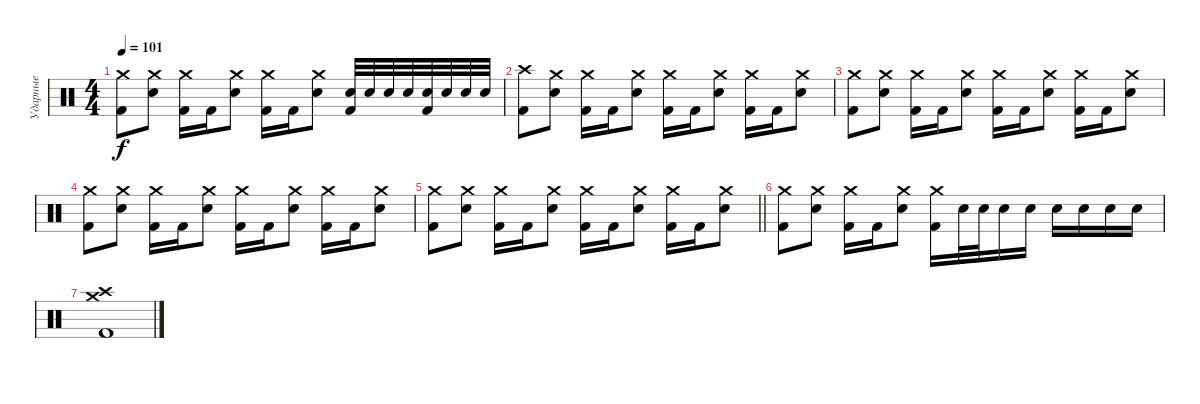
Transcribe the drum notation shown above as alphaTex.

\track ("Ударные" "Ударные") {instrument percussion}
\staff {score}
\articulation defaults
\ts (4 4)
\tempo 101
\clef neutral
\ks c
("Crash medium (hit)" "Kick (hit) 2").8{dy f} ("Crash medium (hit)" "Electric Snare (hit)").8 ("Crash medium (hit)" "Kick (hit) 2").16 "Kick (hit) 2".16 ("Crash medium (hit)" "Electric Snare (hit)").8 ("Crash medium (hit)" "Kick (hit) 2").16 "Kick (hit) 2".16 ("Crash medium (hit)" "Electric Snare (hit)").8 ("Electric Snare (hit)" "Kick (hit) 2").32 "Electric Snare (hit)".32 "Electric Snare (hit)".32 "Electric Snare (hit)".32 ("Electric Snare (hit)" "Kick (hit) 2").32 "Electric Snare (hit)".32 "Electric Snare (hit)".32 "Electric Snare (hit)".32 |
("Crash high (hit)" "Kick (hit) 2").8 ("Crash medium (hit)" "Electric Snare (hit)").8 ("Crash medium (hit)" "Kick (hit) 2").16 "Kick (hit) 2".16 ("Crash medium (hit)" "Electric Snare (hit)").8 ("Crash medium (hit)" "Kick (hit) 2").16 "Kick (hit) 2".16 ("Crash medium (hit)" "Electric Snare (hit)").8 ("Crash medium (hit)" "Kick (hit) 2").16 "Kick (hit) 2".16 ("Crash medium (hit)" "Electric Snare (hit)").8 |
("Crash medium (hit)" "Kick (hit) 2").8 ("Crash medium (hit)" "Electric Snare (hit)").8 ("Crash medium (hit)" "Kick (hit) 2").16 "Kick (hit) 2".16 ("Crash medium (hit)" "Electric Snare (hit)").8 ("Crash medium (hit)" "Kick (hit) 2").16 "Kick (hit) 2".16 ("Crash medium (hit)" "Electric Snare (hit)").8 ("Crash medium (hit)" "Kick (hit) 2").16 "Kick (hit) 2".16 ("Crash medium (hit)" "Electric Snare (hit)").8 |
("Crash medium (hit)" "Kick (hit) 2").8 ("Crash medium (hit)" "Electric Snare (hit)").8 ("Crash medium (hit)" "Kick (hit) 2").16 "Kick (hit) 2".16 ("Crash medium (hit)" "Electric Snare (hit)").8 ("Crash medium (hit)" "Kick (hit) 2").16 "Kick (hit) 2".16 ("Crash medium (hit)" "Electric Snare (hit)").8 ("Crash medium (hit)" "Kick (hit) 2").16 "Kick (hit) 2".16 ("Crash medium (hit)" "Electric Snare (hit)").8 |
\barLineRight lightlight
("Crash medium (hit)" "Kick (hit) 2").8 ("Crash medium (hit)" "Electric Snare (hit)").8 ("Crash medium (hit)" "Kick (hit) 2").16 "Kick (hit) 2".16 ("Crash medium (hit)" "Electric Snare (hit)").8 ("Crash medium (hit)" "Kick (hit) 2").16 "Kick (hit) 2".16 ("Crash medium (hit)" "Electric Snare (hit)").8 ("Crash medium (hit)" "Kick (hit) 2").16 "Kick (hit) 2".16 ("Crash medium (hit)" "Electric Snare (hit)").8 |
("Crash medium (hit)" "Kick (hit) 2").8 ("Crash medium (hit)" "Electric Snare (hit)").8 ("Crash medium (hit)" "Kick (hit) 2").16 "Kick (hit) 2".16 ("Crash medium (hit)" "Electric Snare (hit)").8 ("Crash medium (hit)" "Kick (hit) 2").16 "Electric Snare (hit)".32 "Electric Snare (hit)".32 "Electric Snare (hit)".16 "Electric Snare (hit)".16 "Electric Snare (hit)".16 "Electric Snare (hit)".16 "Electric Snare (hit)".16 "Electric Snare (hit)".16 |
("Crash high (hit)" "Crash medium (hit)" "Kick (hit) 2").1
